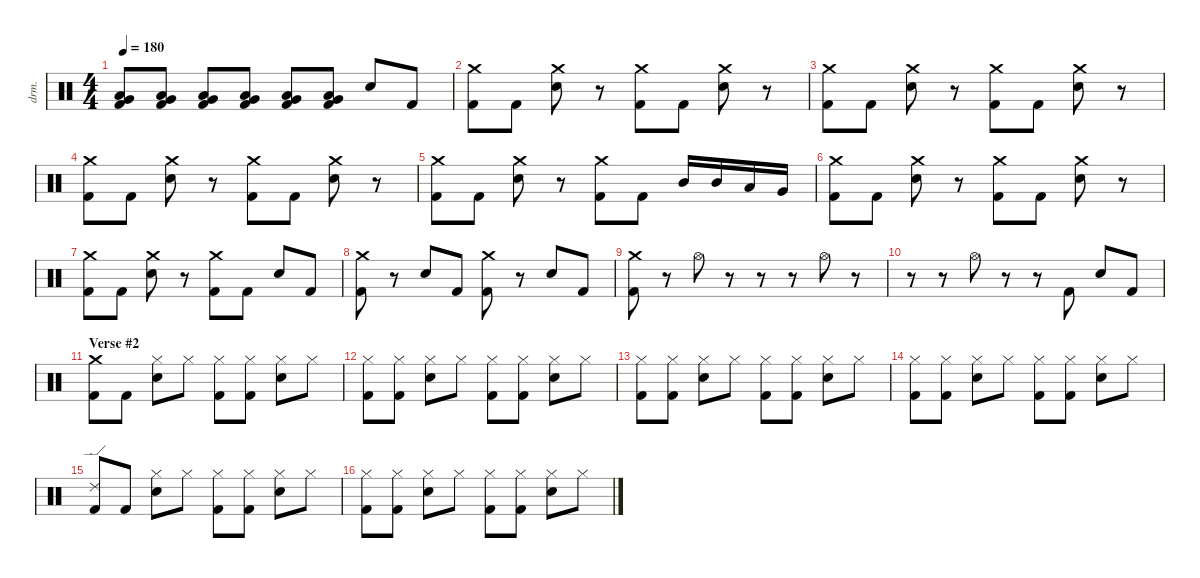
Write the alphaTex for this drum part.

\defaultSystemsLayout 4
\hideDynamics
\bracketExtendMode nobrackets
\otherSystemsTrackNameOrientation horizontal
\track ("Drums" "drm.") {instrument percussion}
\staff {score}
\articulation defaults
\ts (4 4)
\tempo 180
\clef neutral
\ks c
("Low Tom (hit)" "Very Low Tom (hit)" "Kick (hit) 2").8{dy f beam Up} ("Low Tom (hit)" "Very Low Tom (hit)" "Kick (hit) 2").8{beam Up} ("Low Tom (hit)" "Very Low Tom (hit)" "Kick (hit) 2").8{beam Up} ("Low Tom (hit)" "Very Low Tom (hit)" "Kick (hit) 2").8{beam Up} ("Low Tom (hit)" "Very Low Tom (hit)" "Kick (hit) 2").8{beam Up} ("Low Tom (hit)" "Very Low Tom (hit)" "Kick (hit) 2").8{beam Up} "Snare (hit) 2".8{beam Up} "Kick (hit) 2".8{beam Up} |
("Crash medium (hit)" "Kick (hit) 2").8{beam Down} "Kick (hit) 2".8{beam Down} ("Crash medium (hit)" "Snare (hit) 2").8{beam Down} r.8{beam Down} ("Crash medium (hit)" "Kick (hit) 2").8{beam Down} "Kick (hit) 2".8{beam Down} ("Crash medium (hit)" "Snare (hit) 2").8{beam Down} r.8{beam Down} |
("Crash medium (hit)" "Kick (hit) 2").8{beam Down} "Kick (hit) 2".8{beam Down} ("Crash medium (hit)" "Snare (hit) 2").8{beam Down} r.8{beam Down} ("Crash medium (hit)" "Kick (hit) 2").8{beam Down} "Kick (hit) 2".8{beam Down} ("Crash medium (hit)" "Snare (hit) 2").8{beam Down} r.8{beam Down} |
("Crash medium (hit)" "Kick (hit) 2").8{beam Down} "Kick (hit) 2".8{beam Down} ("Crash medium (hit)" "Snare (hit) 2").8{beam Down} r.8{beam Down} ("Crash medium (hit)" "Kick (hit) 2").8{beam Down} "Kick (hit) 2".8{beam Down} ("Crash medium (hit)" "Snare (hit) 2").8{beam Down} r.8{beam Down} |
("Crash medium (hit)" "Kick (hit) 2").8{beam Down} "Kick (hit) 2".8{beam Down} ("Crash medium (hit)" "Snare (hit) 2").8{beam Down} r.8{beam Down} ("Crash medium (hit)" "Kick (hit) 2").8{beam Down} "Kick (hit) 2".8{beam Down} "Mid Tom (hit)".16{beam Up} "Mid Tom (hit)".16{beam Up} "Low Tom (hit)".16{beam Up} "Very Low Tom (hit)".16{beam Up} |
("Crash medium (hit)" "Kick (hit) 2").8{beam Down} "Kick (hit) 2".8{beam Down} ("Crash medium (hit)" "Snare (hit) 2").8{beam Down} r.8{beam Down} ("Crash medium (hit)" "Kick (hit) 2").8{beam Down} "Kick (hit) 2".8{beam Down} ("Crash medium (hit)" "Snare (hit) 2").8{beam Down} r.8{beam Down} |
("Crash medium (hit)" "Kick (hit) 2").8{beam Down} "Kick (hit) 2".8{beam Down} ("Crash medium (hit)" "Snare (hit) 2").8{beam Down} r.8{beam Down} ("Crash medium (hit)" "Kick (hit) 2").8{beam Down} "Kick (hit) 2".8{beam Down} "Snare (hit) 2".8{beam Up} "Kick (hit) 2".8{beam Up} |
("Crash medium (hit)" "Kick (hit) 2").8{beam Down} r.8{beam Down} "Snare (hit) 2".8{beam Up} "Kick (hit) 2".8{beam Up} ("Crash medium (hit)" "Kick (hit) 2").8{beam Down} r.8{beam Down} "Snare (hit) 2".8{beam Up} "Kick (hit) 2".8{beam Up} |
("Crash medium (hit)" "Kick (hit) 2").8{beam Down} r.8{beam Down} "Hi-Hat (open)".8{beam Down} r.8{beam Down} r.8{beam Down} r.8{beam Down} "Hi-Hat (open)".8{beam Down} r.8{beam Down} |
r.8{beam Down} r.8{beam Down} "Hi-Hat (open)".8{beam Down} r.8{beam Down} r.8{beam Down} "Kick (hit) 2".8{beam Up} "Snare (hit) 2".8{beam Up} "Kick (hit) 2".8{beam Up} |
\section ("" "Verse #2")
("Crash medium (hit)" "Kick (hit) 2").8{beam Down} "Kick (hit) 2".8{beam Down} ("Hi-Hat (closed)" "Snare (hit) 2").8{beam Down} "Hi-Hat (closed)".8{beam Down} ("Hi-Hat (closed)" "Kick (hit) 2").8{beam Down} ("Hi-Hat (closed)" "Kick (hit) 2").8{beam Down} ("Hi-Hat (closed)" "Snare (hit) 2").8{beam Down} "Hi-Hat (closed)".8{beam Down} |
("Hi-Hat (closed)" "Kick (hit) 2").8{beam Down} ("Hi-Hat (closed)" "Kick (hit) 2").8{beam Down} ("Hi-Hat (closed)" "Snare (hit) 2").8{beam Down} "Hi-Hat (closed)".8{beam Down} ("Hi-Hat (closed)" "Kick (hit) 2").8{beam Down} ("Hi-Hat (closed)" "Kick (hit) 2").8{beam Down} ("Hi-Hat (closed)" "Snare (hit) 2").8{beam Down} "Hi-Hat (closed)".8{beam Down} |
("Hi-Hat (closed)" "Kick (hit) 2").8{beam Down} ("Hi-Hat (closed)" "Kick (hit) 2").8{beam Down} ("Hi-Hat (closed)" "Snare (hit) 2").8{beam Down} "Hi-Hat (closed)".8{beam Down} ("Hi-Hat (closed)" "Kick (hit) 2").8{beam Down} ("Hi-Hat (closed)" "Kick (hit) 2").8{beam Down} ("Hi-Hat (closed)" "Snare (hit) 2").8{beam Down} "Hi-Hat (closed)".8{beam Down} |
("Hi-Hat (closed)" "Kick (hit) 2").8{beam Down} ("Hi-Hat (closed)" "Kick (hit) 2").8{beam Down} ("Hi-Hat (closed)" "Snare (hit) 2").8{beam Down} "Hi-Hat (closed)".8{beam Down} ("Hi-Hat (closed)" "Kick (hit) 2").8{beam Down} ("Hi-Hat (closed)" "Kick (hit) 2").8{beam Down} ("Hi-Hat (closed)" "Snare (hit) 2").8{beam Down} "Hi-Hat (closed)".8{beam Down} |
("Ride (edge) 2" "Kick (hit) 2").8{beam Up} "Kick (hit) 2".8{beam Up} ("Hi-Hat (closed)" "Snare (hit) 2").8{beam Down} "Hi-Hat (closed)".8{beam Down} ("Hi-Hat (closed)" "Kick (hit) 2").8{beam Down} ("Hi-Hat (closed)" "Kick (hit) 2").8{beam Down} ("Hi-Hat (closed)" "Snare (hit) 2").8{beam Down} "Hi-Hat (closed)".8{beam Down} |
("Hi-Hat (closed)" "Kick (hit) 2").8{beam Down} ("Hi-Hat (closed)" "Kick (hit) 2").8{beam Down} ("Hi-Hat (closed)" "Snare (hit) 2").8{beam Down} "Hi-Hat (closed)".8{beam Down} ("Hi-Hat (closed)" "Kick (hit) 2").8{beam Down} ("Hi-Hat (closed)" "Kick (hit) 2").8{beam Down} ("Hi-Hat (closed)" "Snare (hit) 2").8{beam Down} "Hi-Hat (closed)".8{beam Down}
